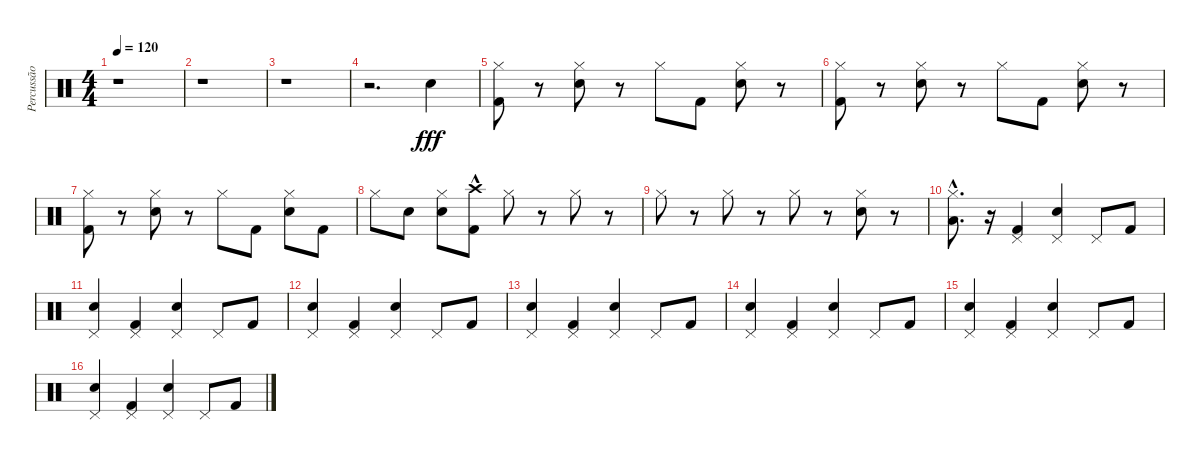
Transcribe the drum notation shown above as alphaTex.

\track ("Percussão" "Percussão") {instrument percussion}
\staff {score}
\articulation defaults
\ts (4 4)
\tempo 120
\clef neutral
\ks c
r.1{dy fff} |
r.1 |
r.1 |
r.2{d} "Snare (hit) 2".4 |
("Kick (hit) 2" "Hi-Hat (closed)").8 r.8 ("Snare (hit) 2" "Hi-Hat (closed)").8 r.8 "Hi-Hat (closed)".8 "Kick (hit) 2".8 ("Snare (hit) 2" "Hi-Hat (closed)").8 r.8 |
("Kick (hit) 2" "Hi-Hat (closed)").8 r.8 ("Snare (hit) 2" "Hi-Hat (closed)").8 r.8 "Hi-Hat (closed)".8 "Kick (hit) 2".8 ("Snare (hit) 2" "Hi-Hat (closed)").8 r.8 |
("Kick (hit) 2" "Hi-Hat (closed)").8 r.8 ("Snare (hit) 2" "Hi-Hat (closed)").8 r.8 "Hi-Hat (closed)".8 "Kick (hit) 2".8 ("Snare (hit) 2" "Hi-Hat (closed)").8 "Kick (hit) 2".8 |
"Hi-Hat (closed)".8 "Snare (hit) 2".8 ("Snare (hit) 2" "Hi-Hat (closed)").8 ("Kick (hit) 2" "Crash high (hit)"{hac}).8 "Hi-Hat (closed)".8 r.8 "Hi-Hat (closed)".8 r.8 |
"Hi-Hat (closed)".8 r.8 "Hi-Hat (closed)".8 r.8 "Hi-Hat (closed)".8 r.8 ("Hi-Hat (closed)" "Snare (hit) 2").8 r.8 |
("Hi-Hat (closed)" "Low Floor Tom (hit)"{hac}).8{d} r.16 ("Kick (hit) 2" "Pedal Hi-Hat (hit)").4 ("Snare (hit) 2" "Pedal Hi-Hat (hit)").4 "Pedal Hi-Hat (hit)".8 "Kick (hit) 2".8 |
("Snare (hit) 2" "Pedal Hi-Hat (hit)").4 ("Kick (hit) 2" "Pedal Hi-Hat (hit)").4 ("Snare (hit) 2" "Pedal Hi-Hat (hit)").4 "Pedal Hi-Hat (hit)".8 "Kick (hit) 2".8 |
("Snare (hit) 2" "Pedal Hi-Hat (hit)").4 ("Kick (hit) 2" "Pedal Hi-Hat (hit)").4 ("Snare (hit) 2" "Pedal Hi-Hat (hit)").4 "Pedal Hi-Hat (hit)".8 "Kick (hit) 2".8 |
("Snare (hit) 2" "Pedal Hi-Hat (hit)").4 ("Kick (hit) 2" "Pedal Hi-Hat (hit)").4 ("Snare (hit) 2" "Pedal Hi-Hat (hit)").4 "Pedal Hi-Hat (hit)".8 "Kick (hit) 2".8 |
("Snare (hit) 2" "Pedal Hi-Hat (hit)").4 ("Kick (hit) 2" "Pedal Hi-Hat (hit)").4 ("Snare (hit) 2" "Pedal Hi-Hat (hit)").4 "Pedal Hi-Hat (hit)".8 "Kick (hit) 2".8 |
("Snare (hit) 2" "Pedal Hi-Hat (hit)").4 ("Kick (hit) 2" "Pedal Hi-Hat (hit)").4 ("Snare (hit) 2" "Pedal Hi-Hat (hit)").4 "Pedal Hi-Hat (hit)".8 "Kick (hit) 2".8 |
("Snare (hit) 2" "Pedal Hi-Hat (hit)").4 ("Kick (hit) 2" "Pedal Hi-Hat (hit)").4 ("Snare (hit) 2" "Pedal Hi-Hat (hit)").4 "Pedal Hi-Hat (hit)".8 "Kick (hit) 2".8
